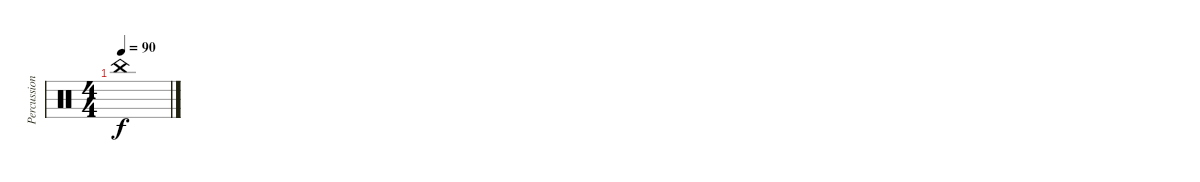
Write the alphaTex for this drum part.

\track ("Percussion" "Percussion") {instrument percussion}
\staff
\articulation defaults
\ts (4 4)
\tempo 90
\clef neutral
\ks c "China (hit)".1{dy f volume 3 balance 5}
